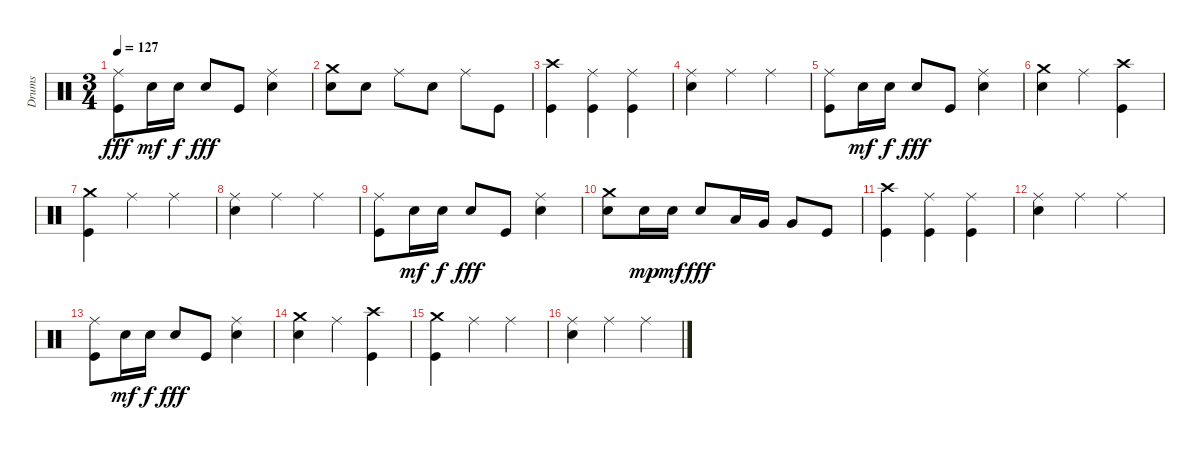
\track ("Drums" "Drums") {instrument percussion}
\staff {score}
\articulation defaults
\ts (3 4)
\tempo 127
\clef neutral
\ks c
("Ride (middle)" "Kick (hit)").8{dy fff} "Snare (hit) 2".16{dy mf} "Snare (hit) 2".16{dy f} "Snare (hit) 2".8{dy fff} "Kick (hit)".8 ("Ride (middle)" "Snare (hit) 2").4 |
("Crash medium (hit)" "Snare (hit) 2").8 "Snare (hit) 2".8 "Ride (middle)".8 "Snare (hit) 2".8 "Ride (middle)".8 "Kick (hit)".8 |
("Crash high (hit)" "Kick (hit)").4 ("Ride (middle)" "Kick (hit)").4 ("Ride (middle)" "Kick (hit)").4 |
("Ride (middle)" "Snare (hit) 2").4 "Ride (middle)".4 "Ride (middle)".4 |
("Ride (middle)" "Kick (hit)").8 "Snare (hit) 2".16{dy mf} "Snare (hit) 2".16{dy f} "Snare (hit) 2".8{dy fff} "Kick (hit)".8 ("Ride (middle)" "Snare (hit) 2").4 |
("Crash medium (hit)" "Snare (hit) 2").4 "Ride (middle)".4 ("Crash high (hit)" "Kick (hit)").4 |
("Crash medium (hit)" "Kick (hit)").4 "Ride (middle)".4 "Ride (middle)".4 |
("Ride (middle)" "Snare (hit) 2").4 "Ride (middle)".4 "Ride (middle)".4 |
("Ride (middle)" "Kick (hit)").8 "Snare (hit) 2".16{dy mf} "Snare (hit) 2".16{dy f} "Snare (hit) 2".8{dy fff} "Kick (hit)".8 ("Ride (middle)" "Snare (hit) 2").4 |
("Crash medium (hit)" "Snare (hit) 2").8 "Snare (hit) 2".16{dy mp} "Snare (hit) 2".16{dy mf} "Snare (hit) 2".8{dy fff} "Low Tom (hit)".16 "Very Low Tom (hit)".16 "Very Low Tom (hit)".8 "Kick (hit)".8 |
("Crash high (hit)" "Kick (hit)").4 ("Ride (middle)" "Kick (hit)").4 ("Ride (middle)" "Kick (hit)").4 |
("Ride (middle)" "Snare (hit) 2").4 "Ride (middle)".4 "Ride (middle)".4 |
("Ride (middle)" "Kick (hit)").8 "Snare (hit) 2".16{dy mf} "Snare (hit) 2".16{dy f} "Snare (hit) 2".8{dy fff} "Kick (hit)".8 ("Ride (middle)" "Snare (hit) 2").4 |
("Crash medium (hit)" "Snare (hit) 2").4 "Ride (middle)".4 ("Crash high (hit)" "Kick (hit)").4 |
("Crash medium (hit)" "Kick (hit)").4 "Ride (middle)".4 "Ride (middle)".4 |
("Ride (middle)" "Snare (hit) 2").4 "Ride (middle)".4 "Ride (middle)".4
